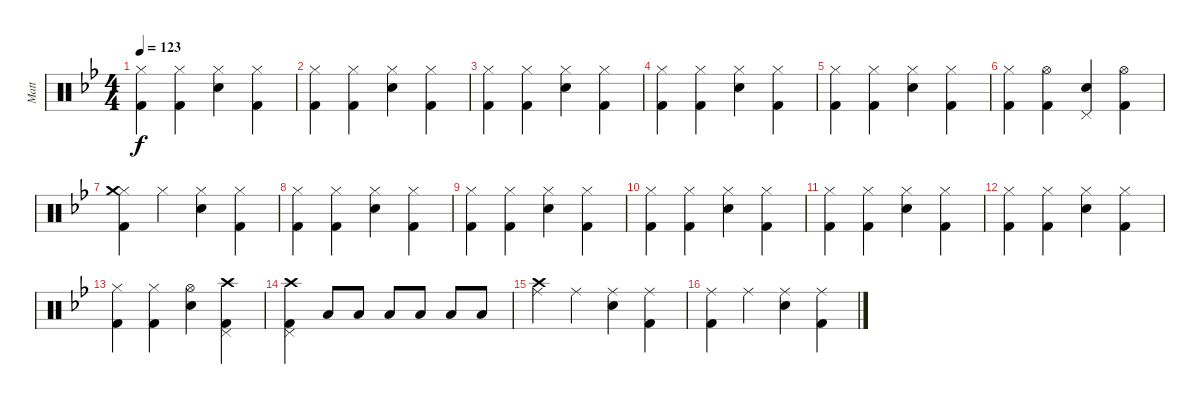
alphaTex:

\track ("Matt" "Matt") {instrument percussion}
\staff {score}
\articulation defaults
\ts (4 4)
\tempo 123
\clef neutral
\ks bb
("Hi-Hat (closed)" "Kick (hit) 2").4{dy f} ("Hi-Hat (closed)" "Kick (hit) 2").4 ("Hi-Hat (closed)" "Snare (hit) 2").4 ("Hi-Hat (closed)" "Kick (hit) 2").4 |
("Hi-Hat (closed)" "Kick (hit) 2").4 ("Hi-Hat (closed)" "Kick (hit) 2").4 ("Hi-Hat (closed)" "Snare (hit) 2").4 ("Hi-Hat (closed)" "Kick (hit) 2").4 |
("Hi-Hat (closed)" "Kick (hit) 2").4 ("Hi-Hat (closed)" "Kick (hit) 2").4 ("Hi-Hat (closed)" "Snare (hit) 2").4 ("Hi-Hat (closed)" "Kick (hit) 2").4 |
("Hi-Hat (closed)" "Kick (hit) 2").4 ("Hi-Hat (closed)" "Kick (hit) 2").4 ("Hi-Hat (closed)" "Snare (hit) 2").4 ("Hi-Hat (closed)" "Kick (hit) 2").4 |
("Hi-Hat (closed)" "Kick (hit) 2").4 ("Hi-Hat (closed)" "Kick (hit) 2").4 ("Hi-Hat (closed)" "Snare (hit) 2").4 ("Hi-Hat (closed)" "Kick (hit) 2").4 |
("Hi-Hat (closed)" "Kick (hit) 2").4 ("Hi-Hat (open)" "Kick (hit) 2").4 ("Pedal Hi-Hat (hit)" "Snare (hit) 2").4 ("Hi-Hat (open)" "Kick (hit) 2").4 |
("Hi-Hat (closed)" "Crash medium (hit)" "Kick (hit) 2").4 "Hi-Hat (closed)".4 ("Hi-Hat (closed)" "Snare (hit) 2").4 ("Hi-Hat (closed)" "Kick (hit) 2").4 |
("Hi-Hat (closed)" "Kick (hit) 2").4 ("Hi-Hat (closed)" "Kick (hit) 2").4 ("Hi-Hat (closed)" "Snare (hit) 2").4 ("Hi-Hat (closed)" "Kick (hit) 2").4 |
("Hi-Hat (closed)" "Kick (hit) 2").4 ("Hi-Hat (closed)" "Kick (hit) 2").4 ("Hi-Hat (closed)" "Snare (hit) 2").4 ("Hi-Hat (closed)" "Kick (hit) 2").4 |
("Hi-Hat (closed)" "Kick (hit) 2").4 ("Hi-Hat (closed)" "Kick (hit) 2").4 ("Hi-Hat (closed)" "Snare (hit) 2").4 ("Hi-Hat (closed)" "Kick (hit) 2").4 |
("Hi-Hat (closed)" "Kick (hit) 2").4 ("Hi-Hat (closed)" "Kick (hit) 2").4 ("Hi-Hat (closed)" "Snare (hit) 2").4 ("Hi-Hat (closed)" "Kick (hit) 2").4 |
("Hi-Hat (closed)" "Kick (hit) 2").4 ("Hi-Hat (closed)" "Kick (hit) 2").4 ("Hi-Hat (closed)" "Snare (hit) 2").4 ("Hi-Hat (closed)" "Kick (hit) 2").4 |
("Hi-Hat (closed)" "Kick (hit) 2").4 ("Hi-Hat (closed)" "Kick (hit) 2").4 ("Hi-Hat (open)" "Snare (hit) 2").4 ("Pedal Hi-Hat (hit)" "Kick (hit) 2" "Crash high (hit)").4 |
("Pedal Hi-Hat (hit)" "Kick (hit) 2" "Crash high (hit)").4 "Low Floor Tom (hit)".8 "Low Floor Tom (hit)".8 "Low Floor Tom (hit)".8 "Low Floor Tom (hit)".8 "Low Floor Tom (hit)".8 "Low Floor Tom (hit)".8 |
("Ride (middle)" "Crash high (hit)").4 "Ride (middle)".4 ("Ride (middle)" "Snare (hit) 2").4 ("Ride (middle)" "Kick (hit) 2").4 |
("Ride (middle)" "Kick (hit) 2").4 "Ride (middle)".4 ("Ride (middle)" "Snare (hit) 2").4 ("Ride (middle)" "Kick (hit) 2").4
